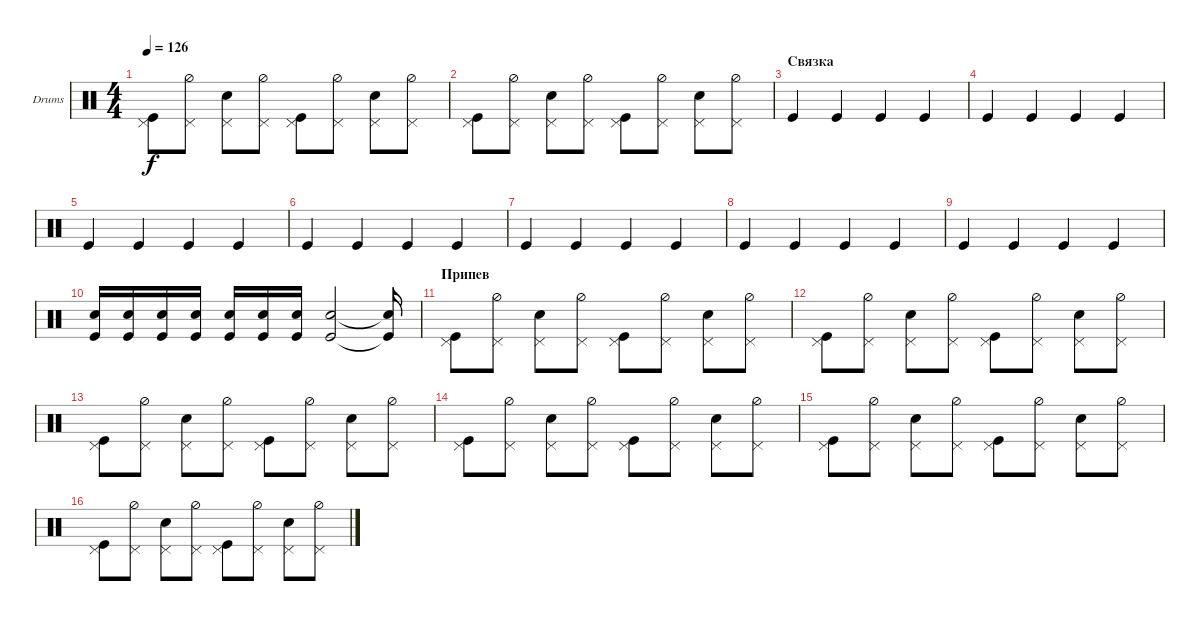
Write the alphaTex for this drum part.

\defaultSystemsLayout 4
\bracketExtendMode groupsimilarinstruments
\firstSystemTrackNameOrientation horizontal
\otherSystemsTrackNameOrientation horizontal
\track ("Е. Кулаков" "Drums") {instrument percussion}
\staff {score}
\articulation defaults
\ts (4 4)
\tempo 126
\clef neutral
\ks c
("Kick (hit)" "Pedal Hi-Hat (hit)").8{dy f} ("Hi-Hat (half)" "Pedal Hi-Hat (hit)").8 ("Pedal Hi-Hat (hit)" "Snare (hit) 2").8 ("Hi-Hat (half)" "Pedal Hi-Hat (hit)").8 ("Kick (hit)" "Pedal Hi-Hat (hit)").8 ("Hi-Hat (half)" "Pedal Hi-Hat (hit)").8 ("Pedal Hi-Hat (hit)" "Snare (hit) 2").8 ("Hi-Hat (half)" "Pedal Hi-Hat (hit)").8 |
("Kick (hit)" "Pedal Hi-Hat (hit)").8 ("Hi-Hat (half)" "Pedal Hi-Hat (hit)").8 ("Pedal Hi-Hat (hit)" "Snare (hit) 2").8 ("Hi-Hat (half)" "Pedal Hi-Hat (hit)").8 ("Kick (hit)" "Pedal Hi-Hat (hit)").8 ("Hi-Hat (half)" "Pedal Hi-Hat (hit)").8 ("Pedal Hi-Hat (hit)" "Snare (hit) 2").8 ("Hi-Hat (half)" "Pedal Hi-Hat (hit)").8 |
\section ("" "Связка")
"Kick (hit)".4 "Kick (hit)".4 "Kick (hit)".4 "Kick (hit)".4 |
"Kick (hit)".4 "Kick (hit)".4 "Kick (hit)".4 "Kick (hit)".4 |
"Kick (hit)".4 "Kick (hit)".4 "Kick (hit)".4 "Kick (hit)".4 |
"Kick (hit)".4 "Kick (hit)".4 "Kick (hit)".4 "Kick (hit)".4 |
"Kick (hit)".4 "Kick (hit)".4 "Kick (hit)".4 "Kick (hit)".4 |
"Kick (hit)".4 "Kick (hit)".4 "Kick (hit)".4 "Kick (hit)".4 |
"Kick (hit)".4 "Kick (hit)".4 "Kick (hit)".4 "Kick (hit)".4 |
("Kick (hit)" "Snare (hit) 2").16 ("Kick (hit)" "Snare (hit) 2").16 ("Kick (hit)" "Snare (hit) 2").16 ("Kick (hit)" "Snare (hit) 2").16 ("Kick (hit)" "Snare (hit) 2").16 ("Kick (hit)" "Snare (hit) 2").16 ("Kick (hit)" "Snare (hit) 2").16 ("Kick (hit)" "Snare (hit) 2").2 ("Kick (hit)"{t} "Snare (hit) 2"{t}).16 |
\section ("" "Припев")
("Kick (hit)" "Pedal Hi-Hat (hit)").8 ("Hi-Hat (half)" "Pedal Hi-Hat (hit)").8 ("Pedal Hi-Hat (hit)" "Snare (hit) 2").8 ("Hi-Hat (half)" "Pedal Hi-Hat (hit)").8 ("Kick (hit)" "Pedal Hi-Hat (hit)").8 ("Hi-Hat (half)" "Pedal Hi-Hat (hit)").8 ("Pedal Hi-Hat (hit)" "Snare (hit) 2").8 ("Hi-Hat (half)" "Pedal Hi-Hat (hit)").8 |
("Kick (hit)" "Pedal Hi-Hat (hit)").8 ("Hi-Hat (half)" "Pedal Hi-Hat (hit)").8 ("Pedal Hi-Hat (hit)" "Snare (hit) 2").8 ("Hi-Hat (half)" "Pedal Hi-Hat (hit)").8 ("Kick (hit)" "Pedal Hi-Hat (hit)").8 ("Hi-Hat (half)" "Pedal Hi-Hat (hit)").8 ("Pedal Hi-Hat (hit)" "Snare (hit) 2").8 ("Hi-Hat (half)" "Pedal Hi-Hat (hit)").8 |
("Kick (hit)" "Pedal Hi-Hat (hit)").8 ("Hi-Hat (half)" "Pedal Hi-Hat (hit)").8 ("Pedal Hi-Hat (hit)" "Snare (hit) 2").8 ("Hi-Hat (half)" "Pedal Hi-Hat (hit)").8 ("Kick (hit)" "Pedal Hi-Hat (hit)").8 ("Hi-Hat (half)" "Pedal Hi-Hat (hit)").8 ("Pedal Hi-Hat (hit)" "Snare (hit) 2").8 ("Hi-Hat (half)" "Pedal Hi-Hat (hit)").8 |
("Kick (hit)" "Pedal Hi-Hat (hit)").8 ("Hi-Hat (half)" "Pedal Hi-Hat (hit)").8 ("Pedal Hi-Hat (hit)" "Snare (hit) 2").8 ("Hi-Hat (half)" "Pedal Hi-Hat (hit)").8 ("Kick (hit)" "Pedal Hi-Hat (hit)").8 ("Hi-Hat (half)" "Pedal Hi-Hat (hit)").8 ("Pedal Hi-Hat (hit)" "Snare (hit) 2").8 ("Hi-Hat (half)" "Pedal Hi-Hat (hit)").8 |
("Kick (hit)" "Pedal Hi-Hat (hit)").8 ("Hi-Hat (half)" "Pedal Hi-Hat (hit)").8 ("Pedal Hi-Hat (hit)" "Snare (hit) 2").8 ("Hi-Hat (half)" "Pedal Hi-Hat (hit)").8 ("Kick (hit)" "Pedal Hi-Hat (hit)").8 ("Hi-Hat (half)" "Pedal Hi-Hat (hit)").8 ("Pedal Hi-Hat (hit)" "Snare (hit) 2").8 ("Hi-Hat (half)" "Pedal Hi-Hat (hit)").8 |
("Kick (hit)" "Pedal Hi-Hat (hit)").8 ("Hi-Hat (half)" "Pedal Hi-Hat (hit)").8 ("Pedal Hi-Hat (hit)" "Snare (hit) 2").8 ("Hi-Hat (half)" "Pedal Hi-Hat (hit)").8 ("Kick (hit)" "Pedal Hi-Hat (hit)").8 ("Hi-Hat (half)" "Pedal Hi-Hat (hit)").8 ("Pedal Hi-Hat (hit)" "Snare (hit) 2").8 ("Hi-Hat (half)" "Pedal Hi-Hat (hit)").8
